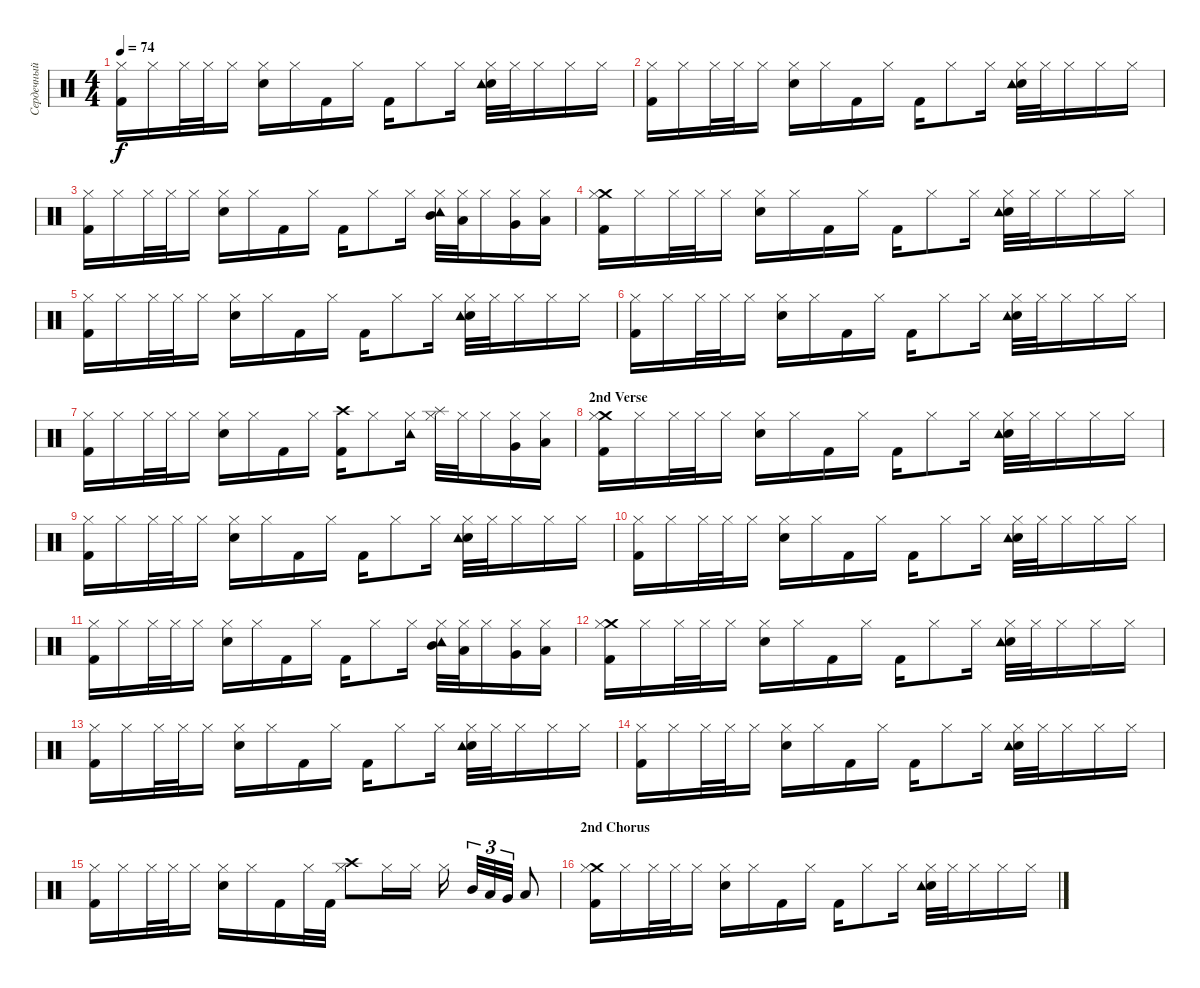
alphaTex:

\track ("Сердечный (Ударные)" "Сердечный ") {instrument percussion}
\staff {score}
\articulation defaults
\ts (4 4)
\tempo 74
\clef neutral
\ks c
("Kick (hit) 2" "Hi-Hat (closed)").16{dy f} "Hi-Hat (closed)".16 "Hi-Hat (closed)".32 "Hi-Hat (closed)".32 "Hi-Hat (closed)".16 ("Electric Snare (hit)" "Hi-Hat (closed)").16 "Hi-Hat (closed)".16 "Kick (hit) 2".16 "Hi-Hat (closed)".16 "Kick (hit) 2".16 "Hi-Hat (closed)".8 "Hi-Hat (closed)".16 ("Electric Snare (hit)" "Tambourine (hit)" "Hi-Hat (closed)").32 "Hi-Hat (closed)".32 "Hi-Hat (closed)".16 "Hi-Hat (closed)".16 "Hi-Hat (closed)".16 |
("Kick (hit) 2" "Hi-Hat (closed)").16 "Hi-Hat (closed)".16 "Hi-Hat (closed)".32 "Hi-Hat (closed)".32 "Hi-Hat (closed)".16 ("Electric Snare (hit)" "Hi-Hat (closed)").16 "Hi-Hat (closed)".16 "Kick (hit) 2".16 "Hi-Hat (closed)".16 "Kick (hit) 2".16 "Hi-Hat (closed)".8 "Hi-Hat (closed)".16 ("Electric Snare (hit)" "Tambourine (hit)" "Hi-Hat (closed)").32 "Hi-Hat (closed)".32 "Hi-Hat (closed)".16 "Hi-Hat (closed)".16 "Hi-Hat (closed)".16 |
("Kick (hit) 2" "Hi-Hat (closed)").16 "Hi-Hat (closed)".16 "Hi-Hat (closed)".32 "Hi-Hat (closed)".32 "Hi-Hat (closed)".16 ("Electric Snare (hit)" "Hi-Hat (closed)").16 "Hi-Hat (closed)".16 "Kick (hit) 2".16 "Hi-Hat (closed)".16 "Kick (hit) 2".16 "Hi-Hat (closed)".8 "Hi-Hat (closed)".16 ("Mid Tom (hit)" "Tambourine (hit)" "Hi-Hat (closed)").32 ("Low Tom (hit)" "Hi-Hat (closed)").32 "Hi-Hat (closed)".16 ("Very Low Tom (hit)" "Hi-Hat (closed)").16 ("Low Floor Tom (hit)" "Hi-Hat (closed)").16 |
("Kick (hit) 2" "Crash medium (hit)" "Hi-Hat (closed)").16 "Hi-Hat (closed)".16 "Hi-Hat (closed)".32 "Hi-Hat (closed)".32 "Hi-Hat (closed)".16 ("Electric Snare (hit)" "Hi-Hat (closed)").16 "Hi-Hat (closed)".16 "Kick (hit) 2".16 "Hi-Hat (closed)".16 "Kick (hit) 2".16 "Hi-Hat (closed)".8 "Hi-Hat (closed)".16 ("Electric Snare (hit)" "Tambourine (hit)" "Hi-Hat (closed)").32 "Hi-Hat (closed)".32 "Hi-Hat (closed)".16 "Hi-Hat (closed)".16 "Hi-Hat (closed)".16 |
("Kick (hit) 2" "Hi-Hat (closed)").16 "Hi-Hat (closed)".16 "Hi-Hat (closed)".32 "Hi-Hat (closed)".32 "Hi-Hat (closed)".16 ("Electric Snare (hit)" "Hi-Hat (closed)").16 "Hi-Hat (closed)".16 "Kick (hit) 2".16 "Hi-Hat (closed)".16 "Kick (hit) 2".16 "Hi-Hat (closed)".8 "Hi-Hat (closed)".16 ("Electric Snare (hit)" "Tambourine (hit)" "Hi-Hat (closed)").32 "Hi-Hat (closed)".32 "Hi-Hat (closed)".16 "Hi-Hat (closed)".16 "Hi-Hat (closed)".16 |
("Kick (hit) 2" "Hi-Hat (closed)").16 "Hi-Hat (closed)".16 "Hi-Hat (closed)".32 "Hi-Hat (closed)".32 "Hi-Hat (closed)".16 ("Electric Snare (hit)" "Hi-Hat (closed)").16 "Hi-Hat (closed)".16 "Kick (hit) 2".16 "Hi-Hat (closed)".16 "Kick (hit) 2".16 "Hi-Hat (closed)".8 "Hi-Hat (closed)".16 ("Electric Snare (hit)" "Tambourine (hit)" "Hi-Hat (closed)").32 "Hi-Hat (closed)".32 "Hi-Hat (closed)".16 "Hi-Hat (closed)".16 "Hi-Hat (closed)".16 |
("Kick (hit) 2" "Hi-Hat (closed)").16 "Hi-Hat (closed)".16 "Hi-Hat (closed)".32 "Hi-Hat (closed)".32 "Hi-Hat (closed)".16 ("Electric Snare (hit)" "Hi-Hat (closed)").16 "Hi-Hat (closed)".16 "Kick (hit) 2".16 "Hi-Hat (closed)".16 ("Kick (hit) 2" "Crash high (hit)").16 "Hi-Hat (closed)".8 ("Tambourine (hit)" "Hi-Hat (closed)").16 ("Splash (hit)" "Hi-Hat (closed)").32 "Hi-Hat (closed)".32 "Hi-Hat (closed)".16 ("Very Low Tom (hit)" "Hi-Hat (closed)").16 ("Low Floor Tom (hit)" "Hi-Hat (closed)").16 |
\section ("" "2nd Verse")
("Kick (hit) 2" "Crash medium (hit)" "Hi-Hat (closed)").16 "Hi-Hat (closed)".16 "Hi-Hat (closed)".32 "Hi-Hat (closed)".32 "Hi-Hat (closed)".16 ("Electric Snare (hit)" "Hi-Hat (closed)").16 "Hi-Hat (closed)".16 "Kick (hit) 2".16 "Hi-Hat (closed)".16 "Kick (hit) 2".16 "Hi-Hat (closed)".8 "Hi-Hat (closed)".16 ("Electric Snare (hit)" "Tambourine (hit)" "Hi-Hat (closed)").32 "Hi-Hat (closed)".32 "Hi-Hat (closed)".16 "Hi-Hat (closed)".16 "Hi-Hat (closed)".16 |
("Kick (hit) 2" "Hi-Hat (closed)").16 "Hi-Hat (closed)".16 "Hi-Hat (closed)".32 "Hi-Hat (closed)".32 "Hi-Hat (closed)".16 ("Electric Snare (hit)" "Hi-Hat (closed)").16 "Hi-Hat (closed)".16 "Kick (hit) 2".16 "Hi-Hat (closed)".16 "Kick (hit) 2".16 "Hi-Hat (closed)".8 "Hi-Hat (closed)".16 ("Electric Snare (hit)" "Tambourine (hit)" "Hi-Hat (closed)").32 "Hi-Hat (closed)".32 "Hi-Hat (closed)".16 "Hi-Hat (closed)".16 "Hi-Hat (closed)".16 |
("Kick (hit) 2" "Hi-Hat (closed)").16 "Hi-Hat (closed)".16 "Hi-Hat (closed)".32 "Hi-Hat (closed)".32 "Hi-Hat (closed)".16 ("Electric Snare (hit)" "Hi-Hat (closed)").16 "Hi-Hat (closed)".16 "Kick (hit) 2".16 "Hi-Hat (closed)".16 "Kick (hit) 2".16 "Hi-Hat (closed)".8 "Hi-Hat (closed)".16 ("Electric Snare (hit)" "Tambourine (hit)" "Hi-Hat (closed)").32 "Hi-Hat (closed)".32 "Hi-Hat (closed)".16 "Hi-Hat (closed)".16 "Hi-Hat (closed)".16 |
("Kick (hit) 2" "Hi-Hat (closed)").16 "Hi-Hat (closed)".16 "Hi-Hat (closed)".32 "Hi-Hat (closed)".32 "Hi-Hat (closed)".16 ("Electric Snare (hit)" "Hi-Hat (closed)").16 "Hi-Hat (closed)".16 "Kick (hit) 2".16 "Hi-Hat (closed)".16 "Kick (hit) 2".16 "Hi-Hat (closed)".8 "Hi-Hat (closed)".16 ("Mid Tom (hit)" "Tambourine (hit)" "Hi-Hat (closed)").32 ("Low Tom (hit)" "Hi-Hat (closed)").32 "Hi-Hat (closed)".16 ("Very Low Tom (hit)" "Hi-Hat (closed)").16 ("Low Floor Tom (hit)" "Hi-Hat (closed)").16 |
("Kick (hit) 2" "Crash medium (hit)" "Hi-Hat (closed)").16 "Hi-Hat (closed)".16 "Hi-Hat (closed)".32 "Hi-Hat (closed)".32 "Hi-Hat (closed)".16 ("Electric Snare (hit)" "Hi-Hat (closed)").16 "Hi-Hat (closed)".16 "Kick (hit) 2".16 "Hi-Hat (closed)".16 "Kick (hit) 2".16 "Hi-Hat (closed)".8 "Hi-Hat (closed)".16 ("Electric Snare (hit)" "Tambourine (hit)" "Hi-Hat (closed)").32 "Hi-Hat (closed)".32 "Hi-Hat (closed)".16 "Hi-Hat (closed)".16 "Hi-Hat (closed)".16 |
("Kick (hit) 2" "Hi-Hat (closed)").16 "Hi-Hat (closed)".16 "Hi-Hat (closed)".32 "Hi-Hat (closed)".32 "Hi-Hat (closed)".16 ("Electric Snare (hit)" "Hi-Hat (closed)").16 "Hi-Hat (closed)".16 "Kick (hit) 2".16 "Hi-Hat (closed)".16 "Kick (hit) 2".16 "Hi-Hat (closed)".8 "Hi-Hat (closed)".16 ("Electric Snare (hit)" "Tambourine (hit)" "Hi-Hat (closed)").32 "Hi-Hat (closed)".32 "Hi-Hat (closed)".16 "Hi-Hat (closed)".16 "Hi-Hat (closed)".16 |
("Kick (hit) 2" "Hi-Hat (closed)").16 "Hi-Hat (closed)".16 "Hi-Hat (closed)".32 "Hi-Hat (closed)".32 "Hi-Hat (closed)".16 ("Electric Snare (hit)" "Hi-Hat (closed)").16 "Hi-Hat (closed)".16 "Kick (hit) 2".16 "Hi-Hat (closed)".16 "Kick (hit) 2".16 "Hi-Hat (closed)".8 "Hi-Hat (closed)".16 ("Electric Snare (hit)" "Tambourine (hit)" "Hi-Hat (closed)").32 "Hi-Hat (closed)".32 "Hi-Hat (closed)".16 "Hi-Hat (closed)".16 "Hi-Hat (closed)".16 |
("Kick (hit) 2" "Hi-Hat (closed)").16 "Hi-Hat (closed)".16 "Hi-Hat (closed)".32 "Hi-Hat (closed)".32 "Hi-Hat (closed)".16 ("Electric Snare (hit)" "Hi-Hat (closed)").16 "Hi-Hat (closed)".16 "Kick (hit) 2".16 "Hi-Hat (closed)".32 "Kick (hit) 2".32 ("Crash high (hit)" "Hi-Hat (closed)").8 "Hi-Hat (closed)".16 "Hi-Hat (closed)".16 "Hi-Hat (closed)".16 "Mid Tom (hit)".32{tu (3 2)} "Low Tom (hit)".32{tu (3 2)} "Very Low Tom (hit)".32{tu (3 2)} "Low Floor Tom (hit)".8 |
\section ("" "2nd Chorus")
("Kick (hit) 2" "Crash medium (hit)" "Hi-Hat (closed)").16 "Hi-Hat (closed)".16 "Hi-Hat (closed)".32 "Hi-Hat (closed)".32 "Hi-Hat (closed)".16 ("Electric Snare (hit)" "Hi-Hat (closed)").16 "Hi-Hat (closed)".16 "Kick (hit) 2".16 "Hi-Hat (closed)".16 "Kick (hit) 2".16 "Hi-Hat (closed)".8 "Hi-Hat (closed)".16 ("Electric Snare (hit)" "Tambourine (hit)" "Hi-Hat (closed)").32 "Hi-Hat (closed)".32 "Hi-Hat (closed)".16 "Hi-Hat (closed)".16 "Hi-Hat (closed)".16
